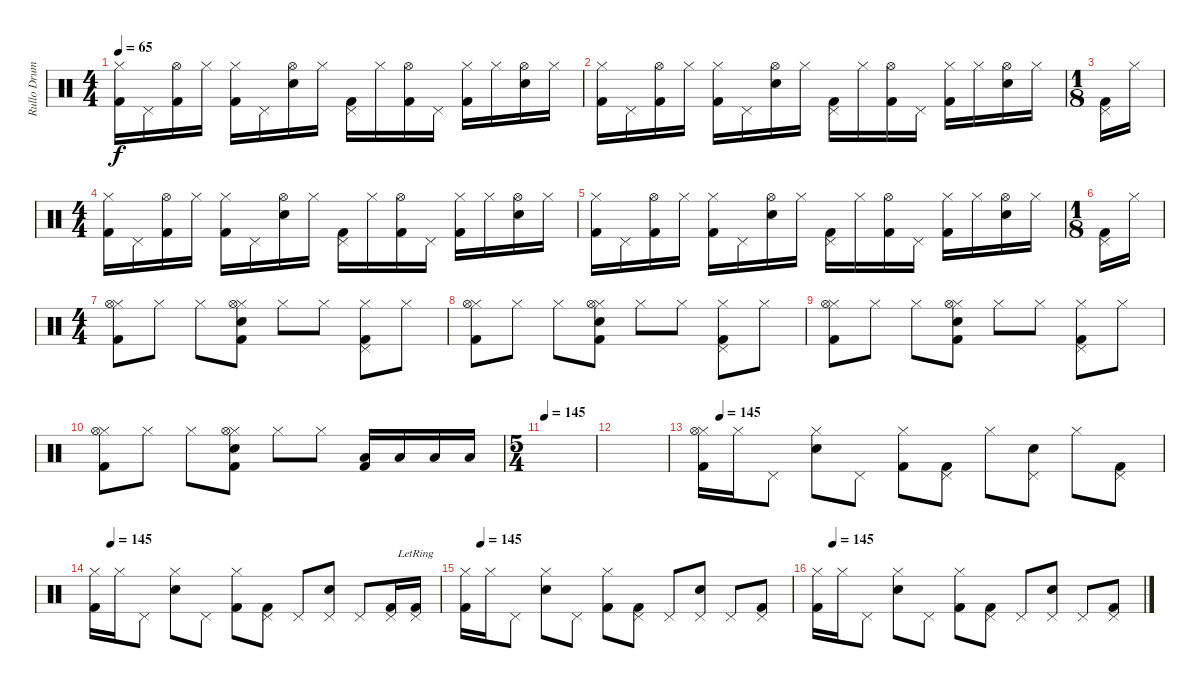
\track ("Rullo Drums" "Rullo Drum") {instrument percussion}
\staff {score}
\articulation defaults
\ts (4 4)
\tempo 65
\clef neutral
\ks c
("Hi-Hat (closed)" "Kick (hit) 2").16{dy f} "Pedal Hi-Hat (hit)".16 ("Hi-Hat (open)" "Kick (hit) 2").16 "Hi-Hat (closed)".16 ("Hi-Hat (closed)" "Kick (hit) 2").16 "Pedal Hi-Hat (hit)".16 ("Hi-Hat (open)" "Electric Snare (hit)").16 "Hi-Hat (closed)".16 ("Pedal Hi-Hat (hit)" "Kick (hit) 2").16 "Hi-Hat (closed)".16 ("Hi-Hat (open)" "Kick (hit) 2").16 "Pedal Hi-Hat (hit)".16 ("Hi-Hat (closed)" "Kick (hit) 2").16 "Hi-Hat (closed)".16 ("Hi-Hat (open)" "Electric Snare (hit)").16 "Hi-Hat (closed)".16 |
("Hi-Hat (closed)" "Kick (hit) 2").16 "Pedal Hi-Hat (hit)".16 ("Hi-Hat (open)" "Kick (hit) 2").16 "Hi-Hat (closed)".16 ("Hi-Hat (closed)" "Kick (hit) 2").16 "Pedal Hi-Hat (hit)".16 ("Hi-Hat (open)" "Electric Snare (hit)").16 "Hi-Hat (closed)".16 ("Pedal Hi-Hat (hit)" "Kick (hit) 2").16 "Hi-Hat (closed)".16 ("Hi-Hat (open)" "Kick (hit) 2").16 "Pedal Hi-Hat (hit)".16 ("Hi-Hat (closed)" "Kick (hit) 2").16 "Hi-Hat (closed)".16 ("Hi-Hat (open)" "Electric Snare (hit)").16 "Hi-Hat (closed)".16 |
\ts (1 8)
("Pedal Hi-Hat (hit)" "Kick (hit) 2").16 "Hi-Hat (closed)".16 |
\ts (4 4)
("Hi-Hat (closed)" "Kick (hit) 2").16 "Pedal Hi-Hat (hit)".16 ("Hi-Hat (open)" "Kick (hit) 2").16 "Hi-Hat (closed)".16 ("Hi-Hat (closed)" "Kick (hit) 2").16 "Pedal Hi-Hat (hit)".16 ("Hi-Hat (open)" "Electric Snare (hit)").16 "Hi-Hat (closed)".16 ("Pedal Hi-Hat (hit)" "Kick (hit) 2").16 "Hi-Hat (closed)".16 ("Hi-Hat (open)" "Kick (hit) 2").16 "Pedal Hi-Hat (hit)".16 ("Hi-Hat (closed)" "Kick (hit) 2").16 "Hi-Hat (closed)".16 ("Hi-Hat (open)" "Electric Snare (hit)").16 "Hi-Hat (closed)".16 |
("Hi-Hat (closed)" "Kick (hit) 2").16 "Pedal Hi-Hat (hit)".16 ("Hi-Hat (open)" "Kick (hit) 2").16 "Hi-Hat (closed)".16 ("Hi-Hat (closed)" "Kick (hit) 2").16 "Pedal Hi-Hat (hit)".16 ("Hi-Hat (open)" "Electric Snare (hit)").16 "Hi-Hat (closed)".16 ("Pedal Hi-Hat (hit)" "Kick (hit) 2").16 "Hi-Hat (closed)".16 ("Hi-Hat (open)" "Kick (hit) 2").16 "Pedal Hi-Hat (hit)".16 ("Hi-Hat (closed)" "Kick (hit) 2").16 "Hi-Hat (closed)".16 ("Hi-Hat (open)" "Electric Snare (hit)").16 "Hi-Hat (closed)".16 |
\ts (1 8)
("Pedal Hi-Hat (hit)" "Kick (hit) 2").16 "Hi-Hat (closed)".16 |
\ts (4 4)
("Hi-Hat (closed)" "Kick (hit) 2" "Hi-Hat (open)").8 "Hi-Hat (closed)".8 "Hi-Hat (closed)".8 ("Hi-Hat (closed)" "Electric Snare (hit)" "Hi-Hat (open)" "Kick (hit) 2").8 "Hi-Hat (closed)".8 "Hi-Hat (closed)".8 ("Hi-Hat (closed)" "Kick (hit) 2" "Pedal Hi-Hat (hit)").8 "Hi-Hat (closed)".8 |
("Hi-Hat (closed)" "Kick (hit) 2" "Hi-Hat (open)").8 "Hi-Hat (closed)".8 "Hi-Hat (closed)".8 ("Hi-Hat (closed)" "Electric Snare (hit)" "Hi-Hat (open)" "Kick (hit) 2").8 "Hi-Hat (closed)".8 "Hi-Hat (closed)".8 ("Hi-Hat (closed)" "Kick (hit) 2" "Pedal Hi-Hat (hit)").8 "Hi-Hat (closed)".8 |
("Hi-Hat (closed)" "Kick (hit) 2" "Hi-Hat (open)").8 "Hi-Hat (closed)".8 "Hi-Hat (closed)".8 ("Hi-Hat (closed)" "Electric Snare (hit)" "Hi-Hat (open)" "Kick (hit) 2").8 "Hi-Hat (closed)".8 "Hi-Hat (closed)".8 ("Hi-Hat (closed)" "Kick (hit) 2" "Pedal Hi-Hat (hit)").8 "Hi-Hat (closed)".8 |
("Hi-Hat (closed)" "Kick (hit) 2" "Hi-Hat (open)").8 "Hi-Hat (closed)".8 "Hi-Hat (closed)".8 ("Hi-Hat (closed)" "Electric Snare (hit)" "Hi-Hat (open)" "Kick (hit) 2").8 "Hi-Hat (closed)".8 "Hi-Hat (closed)".8 ("Low Floor Tom (hit)" "Kick (hit) 2").16 "Low Floor Tom (hit)".16 "Low Floor Tom (hit)".16 "Low Floor Tom (hit)".16 |
\ts (5 4)
\tempo 145
|
|
\tempo (145 0.05)
("Hi-Hat (closed)" "Hi-Hat (open)" "Kick (hit) 2").16 "Hi-Hat (closed)".16 "Pedal Hi-Hat (hit)".8 ("Hi-Hat (closed)" "Electric Snare (hit)").8 "Pedal Hi-Hat (hit)".8 ("Hi-Hat (closed)" "Kick (hit) 2").8 ("Pedal Hi-Hat (hit)" "Kick (hit) 2").8 "Hi-Hat (closed)".8 ("Pedal Hi-Hat (hit)" "Electric Snare (hit)").8 "Hi-Hat (closed)".8 ("Pedal Hi-Hat (hit)" "Kick (hit) 2").8 |
\tempo (145 0.05)
("Hi-Hat (closed)" "Kick (hit) 2").16 "Hi-Hat (closed)".16 "Pedal Hi-Hat (hit)".8 ("Hi-Hat (closed)" "Electric Snare (hit)").8 "Pedal Hi-Hat (hit)".8 ("Hi-Hat (closed)" "Kick (hit) 2").8 ("Pedal Hi-Hat (hit)" "Kick (hit) 2").8 "Pedal Hi-Hat (hit)".8 ("Pedal Hi-Hat (hit)" "Electric Snare (hit)").8 "Pedal Hi-Hat (hit)".8 ("Pedal Hi-Hat (hit)" "Kick (hit) 2").16 ("Pedal Hi-Hat (hit)" "Kick (hit) 2"{lr}).16 |
\tempo (145 0.05)
("Hi-Hat (closed)" "Kick (hit) 2").16 "Hi-Hat (closed)".16 "Pedal Hi-Hat (hit)".8 ("Hi-Hat (closed)" "Electric Snare (hit)").8 "Pedal Hi-Hat (hit)".8 ("Hi-Hat (closed)" "Kick (hit) 2").8 ("Pedal Hi-Hat (hit)" "Kick (hit) 2").8 "Pedal Hi-Hat (hit)".8 ("Pedal Hi-Hat (hit)" "Electric Snare (hit)").8 "Pedal Hi-Hat (hit)".8 ("Pedal Hi-Hat (hit)" "Kick (hit) 2").8 |
\tempo (145 0.05)
("Hi-Hat (closed)" "Kick (hit) 2").16 "Hi-Hat (closed)".16 "Pedal Hi-Hat (hit)".8 ("Hi-Hat (closed)" "Electric Snare (hit)").8 "Pedal Hi-Hat (hit)".8 ("Hi-Hat (closed)" "Kick (hit) 2").8 ("Pedal Hi-Hat (hit)" "Kick (hit) 2").8 "Pedal Hi-Hat (hit)".8 ("Pedal Hi-Hat (hit)" "Electric Snare (hit)").8 "Pedal Hi-Hat (hit)".8 ("Pedal Hi-Hat (hit)" "Kick (hit) 2").8
